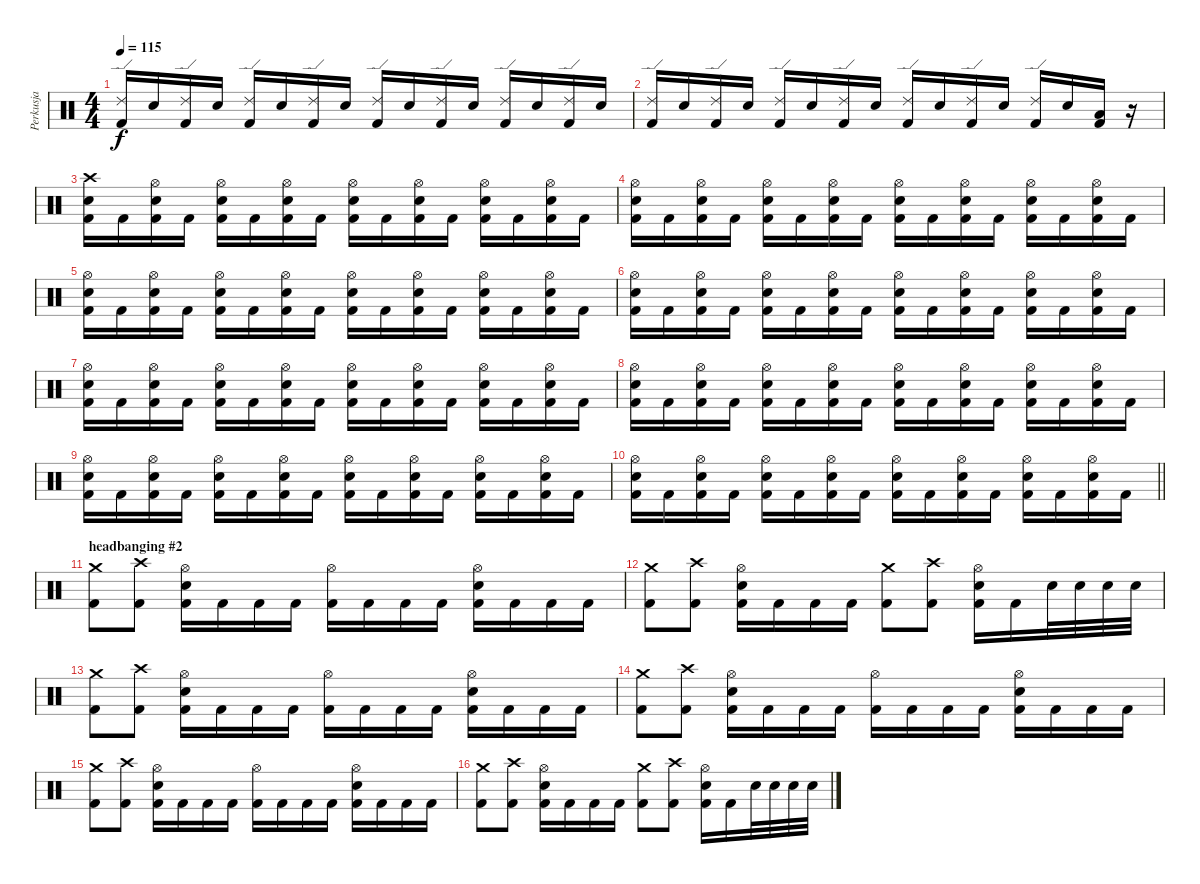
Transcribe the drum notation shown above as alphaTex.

\track ("Perkusja" "Perkusja") {instrument percussion}
\staff {score}
\articulation defaults
\ts (4 4)
\tempo 115
\clef neutral
\ks c
("Kick (hit) 2" "Ride (edge) 2").16{dy f} "Snare (hit) 2".16 ("Kick (hit) 2" "Ride (edge) 2").16 "Snare (hit) 2".16 ("Kick (hit) 2" "Ride (edge) 2").16 "Snare (hit) 2".16 ("Kick (hit) 2" "Ride (edge) 2").16 "Snare (hit) 2".16 ("Kick (hit) 2" "Ride (edge) 2").16 "Snare (hit) 2".16 ("Kick (hit) 2" "Ride (edge) 2").16 "Snare (hit) 2".16 ("Kick (hit) 2" "Ride (edge) 2").16 "Snare (hit) 2".16 ("Kick (hit) 2" "Ride (edge) 2").16 "Snare (hit) 2".16 |
("Kick (hit) 2" "Ride (edge) 2").16 "Snare (hit) 2".16 ("Kick (hit) 2" "Ride (edge) 2").16 "Snare (hit) 2".16 ("Kick (hit) 2" "Ride (edge) 2").16 "Snare (hit) 2".16 ("Kick (hit) 2" "Ride (edge) 2").16 "Snare (hit) 2".16 ("Kick (hit) 2" "Ride (edge) 2").16 "Snare (hit) 2".16 ("Kick (hit) 2" "Ride (edge) 2").16 "Snare (hit) 2".16 ("Kick (hit) 2" "Ride (edge) 2").16 "Snare (hit) 2".16 ("Kick (hit) 2" "Low Floor Tom (hit)").16 r.16 |
("Kick (hit) 2" "Crash high (hit)" "Snare (hit) 2").16 "Kick (hit) 2".16 ("Kick (hit) 2" "Hi-Hat (open)" "Snare (hit) 2").16 "Kick (hit) 2".16 ("Kick (hit) 2" "Snare (hit) 2" "Hi-Hat (open)").16 "Kick (hit) 2".16 ("Kick (hit) 2" "Hi-Hat (open)" "Snare (hit) 2").16 "Kick (hit) 2".16 ("Kick (hit) 2" "Snare (hit) 2" "Hi-Hat (open)").16 "Kick (hit) 2".16 ("Kick (hit) 2" "Hi-Hat (open)" "Snare (hit) 2").16 "Kick (hit) 2".16 ("Kick (hit) 2" "Snare (hit) 2" "Hi-Hat (open)").16 "Kick (hit) 2".16 ("Kick (hit) 2" "Hi-Hat (open)" "Snare (hit) 2").16 "Kick (hit) 2".16 |
("Kick (hit) 2" "Snare (hit) 2" "Hi-Hat (open)").16 "Kick (hit) 2".16 ("Kick (hit) 2" "Hi-Hat (open)" "Snare (hit) 2").16 "Kick (hit) 2".16 ("Kick (hit) 2" "Snare (hit) 2" "Hi-Hat (open)").16 "Kick (hit) 2".16 ("Kick (hit) 2" "Hi-Hat (open)" "Snare (hit) 2").16 "Kick (hit) 2".16 ("Kick (hit) 2" "Snare (hit) 2" "Hi-Hat (open)").16 "Kick (hit) 2".16 ("Kick (hit) 2" "Hi-Hat (open)" "Snare (hit) 2").16 "Kick (hit) 2".16 ("Kick (hit) 2" "Snare (hit) 2" "Hi-Hat (open)").16 "Kick (hit) 2".16 ("Kick (hit) 2" "Hi-Hat (open)" "Snare (hit) 2").16 "Kick (hit) 2".16 |
("Kick (hit) 2" "Snare (hit) 2" "Hi-Hat (open)").16 "Kick (hit) 2".16 ("Kick (hit) 2" "Hi-Hat (open)" "Snare (hit) 2").16 "Kick (hit) 2".16 ("Kick (hit) 2" "Snare (hit) 2" "Hi-Hat (open)").16 "Kick (hit) 2".16 ("Kick (hit) 2" "Hi-Hat (open)" "Snare (hit) 2").16 "Kick (hit) 2".16 ("Kick (hit) 2" "Snare (hit) 2" "Hi-Hat (open)").16 "Kick (hit) 2".16 ("Kick (hit) 2" "Hi-Hat (open)" "Snare (hit) 2").16 "Kick (hit) 2".16 ("Kick (hit) 2" "Snare (hit) 2" "Hi-Hat (open)").16 "Kick (hit) 2".16 ("Kick (hit) 2" "Hi-Hat (open)" "Snare (hit) 2").16 "Kick (hit) 2".16 |
("Kick (hit) 2" "Snare (hit) 2" "Hi-Hat (open)").16 "Kick (hit) 2".16 ("Kick (hit) 2" "Hi-Hat (open)" "Snare (hit) 2").16 "Kick (hit) 2".16 ("Kick (hit) 2" "Snare (hit) 2" "Hi-Hat (open)").16 "Kick (hit) 2".16 ("Kick (hit) 2" "Hi-Hat (open)" "Snare (hit) 2").16 "Kick (hit) 2".16 ("Kick (hit) 2" "Snare (hit) 2" "Hi-Hat (open)").16 "Kick (hit) 2".16 ("Kick (hit) 2" "Hi-Hat (open)" "Snare (hit) 2").16 "Kick (hit) 2".16 ("Kick (hit) 2" "Snare (hit) 2" "Hi-Hat (open)").16 "Kick (hit) 2".16 ("Kick (hit) 2" "Hi-Hat (open)" "Snare (hit) 2").16 "Kick (hit) 2".16 |
("Kick (hit) 2" "Snare (hit) 2" "Hi-Hat (open)").16 "Kick (hit) 2".16 ("Kick (hit) 2" "Hi-Hat (open)" "Snare (hit) 2").16 "Kick (hit) 2".16 ("Kick (hit) 2" "Snare (hit) 2" "Hi-Hat (open)").16 "Kick (hit) 2".16 ("Kick (hit) 2" "Hi-Hat (open)" "Snare (hit) 2").16 "Kick (hit) 2".16 ("Kick (hit) 2" "Snare (hit) 2" "Hi-Hat (open)").16 "Kick (hit) 2".16 ("Kick (hit) 2" "Hi-Hat (open)" "Snare (hit) 2").16 "Kick (hit) 2".16 ("Kick (hit) 2" "Snare (hit) 2" "Hi-Hat (open)").16 "Kick (hit) 2".16 ("Kick (hit) 2" "Hi-Hat (open)" "Snare (hit) 2").16 "Kick (hit) 2".16 |
("Kick (hit) 2" "Snare (hit) 2" "Hi-Hat (open)").16 "Kick (hit) 2".16 ("Kick (hit) 2" "Hi-Hat (open)" "Snare (hit) 2").16 "Kick (hit) 2".16 ("Kick (hit) 2" "Snare (hit) 2" "Hi-Hat (open)").16 "Kick (hit) 2".16 ("Kick (hit) 2" "Hi-Hat (open)" "Snare (hit) 2").16 "Kick (hit) 2".16 ("Kick (hit) 2" "Snare (hit) 2" "Hi-Hat (open)").16 "Kick (hit) 2".16 ("Kick (hit) 2" "Hi-Hat (open)" "Snare (hit) 2").16 "Kick (hit) 2".16 ("Kick (hit) 2" "Snare (hit) 2" "Hi-Hat (open)").16 "Kick (hit) 2".16 ("Kick (hit) 2" "Hi-Hat (open)" "Snare (hit) 2").16 "Kick (hit) 2".16 |
("Kick (hit) 2" "Snare (hit) 2" "Hi-Hat (open)").16 "Kick (hit) 2".16 ("Kick (hit) 2" "Hi-Hat (open)" "Snare (hit) 2").16 "Kick (hit) 2".16 ("Kick (hit) 2" "Snare (hit) 2" "Hi-Hat (open)").16 "Kick (hit) 2".16 ("Kick (hit) 2" "Hi-Hat (open)" "Snare (hit) 2").16 "Kick (hit) 2".16 ("Kick (hit) 2" "Snare (hit) 2" "Hi-Hat (open)").16 "Kick (hit) 2".16 ("Kick (hit) 2" "Hi-Hat (open)" "Snare (hit) 2").16 "Kick (hit) 2".16 ("Kick (hit) 2" "Snare (hit) 2" "Hi-Hat (open)").16 "Kick (hit) 2".16 ("Kick (hit) 2" "Hi-Hat (open)" "Snare (hit) 2").16 "Kick (hit) 2".16 |
\barLineRight lightlight
("Kick (hit) 2" "Snare (hit) 2" "Hi-Hat (open)").16 "Kick (hit) 2".16 ("Kick (hit) 2" "Hi-Hat (open)" "Snare (hit) 2").16 "Kick (hit) 2".16 ("Kick (hit) 2" "Snare (hit) 2" "Hi-Hat (open)").16 "Kick (hit) 2".16 ("Kick (hit) 2" "Hi-Hat (open)" "Snare (hit) 2").16 "Kick (hit) 2".16 ("Kick (hit) 2" "Snare (hit) 2" "Hi-Hat (open)").16 "Kick (hit) 2".16 ("Kick (hit) 2" "Hi-Hat (open)" "Snare (hit) 2").16 "Kick (hit) 2".16 ("Kick (hit) 2" "Snare (hit) 2" "Hi-Hat (open)").16 "Kick (hit) 2".16 ("Kick (hit) 2" "Hi-Hat (open)" "Snare (hit) 2").16 "Kick (hit) 2".16 |
\section ("" "headbanging #2")
("Crash medium (hit)" "Kick (hit) 2").8 ("Crash high (hit)" "Kick (hit) 2").8 ("Kick (hit) 2" "Snare (hit) 2" "Hi-Hat (open)").16 "Kick (hit) 2".16 "Kick (hit) 2".16 "Kick (hit) 2".16 ("Kick (hit) 2" "Hi-Hat (open)").16 "Kick (hit) 2".16 "Kick (hit) 2".16 "Kick (hit) 2".16 ("Kick (hit) 2" "Snare (hit) 2" "Hi-Hat (open)").16 "Kick (hit) 2".16 "Kick (hit) 2".16 "Kick (hit) 2".16 |
("Crash medium (hit)" "Kick (hit) 2").8 ("Crash high (hit)" "Kick (hit) 2").8 ("Kick (hit) 2" "Snare (hit) 2" "Hi-Hat (open)").16 "Kick (hit) 2".16 "Kick (hit) 2".16 "Kick (hit) 2".16 ("Crash medium (hit)" "Kick (hit) 2").8 ("Crash high (hit)" "Kick (hit) 2").8 ("Kick (hit) 2" "Snare (hit) 2" "Hi-Hat (open)").16 "Kick (hit) 2".16 "Snare (hit) 2".32 "Snare (hit) 2".32 "Snare (hit) 2".32 "Snare (hit) 2".32 |
("Crash medium (hit)" "Kick (hit) 2").8 ("Crash high (hit)" "Kick (hit) 2").8 ("Kick (hit) 2" "Snare (hit) 2" "Hi-Hat (open)").16 "Kick (hit) 2".16 "Kick (hit) 2".16 "Kick (hit) 2".16 ("Kick (hit) 2" "Hi-Hat (open)").16 "Kick (hit) 2".16 "Kick (hit) 2".16 "Kick (hit) 2".16 ("Kick (hit) 2" "Snare (hit) 2" "Hi-Hat (open)").16 "Kick (hit) 2".16 "Kick (hit) 2".16 "Kick (hit) 2".16 |
("Crash medium (hit)" "Kick (hit) 2").8 ("Crash high (hit)" "Kick (hit) 2").8 ("Kick (hit) 2" "Snare (hit) 2" "Hi-Hat (open)").16 "Kick (hit) 2".16 "Kick (hit) 2".16 "Kick (hit) 2".16 ("Kick (hit) 2" "Hi-Hat (open)").16 "Kick (hit) 2".16 "Kick (hit) 2".16 "Kick (hit) 2".16 ("Kick (hit) 2" "Snare (hit) 2" "Hi-Hat (open)").16 "Kick (hit) 2".16 "Kick (hit) 2".16 "Kick (hit) 2".16 |
("Crash medium (hit)" "Kick (hit) 2").8 ("Crash high (hit)" "Kick (hit) 2").8 ("Kick (hit) 2" "Snare (hit) 2" "Hi-Hat (open)").16 "Kick (hit) 2".16 "Kick (hit) 2".16 "Kick (hit) 2".16 ("Kick (hit) 2" "Hi-Hat (open)").16 "Kick (hit) 2".16 "Kick (hit) 2".16 "Kick (hit) 2".16 ("Kick (hit) 2" "Snare (hit) 2" "Hi-Hat (open)").16 "Kick (hit) 2".16 "Kick (hit) 2".16 "Kick (hit) 2".16 |
("Crash medium (hit)" "Kick (hit) 2").8 ("Crash high (hit)" "Kick (hit) 2").8 ("Kick (hit) 2" "Snare (hit) 2" "Hi-Hat (open)").16 "Kick (hit) 2".16 "Kick (hit) 2".16 "Kick (hit) 2".16 ("Crash medium (hit)" "Kick (hit) 2").8 ("Crash high (hit)" "Kick (hit) 2").8 ("Kick (hit) 2" "Snare (hit) 2" "Hi-Hat (open)").16 "Kick (hit) 2".16 "Snare (hit) 2".32 "Snare (hit) 2".32 "Snare (hit) 2".32 "Snare (hit) 2".32
